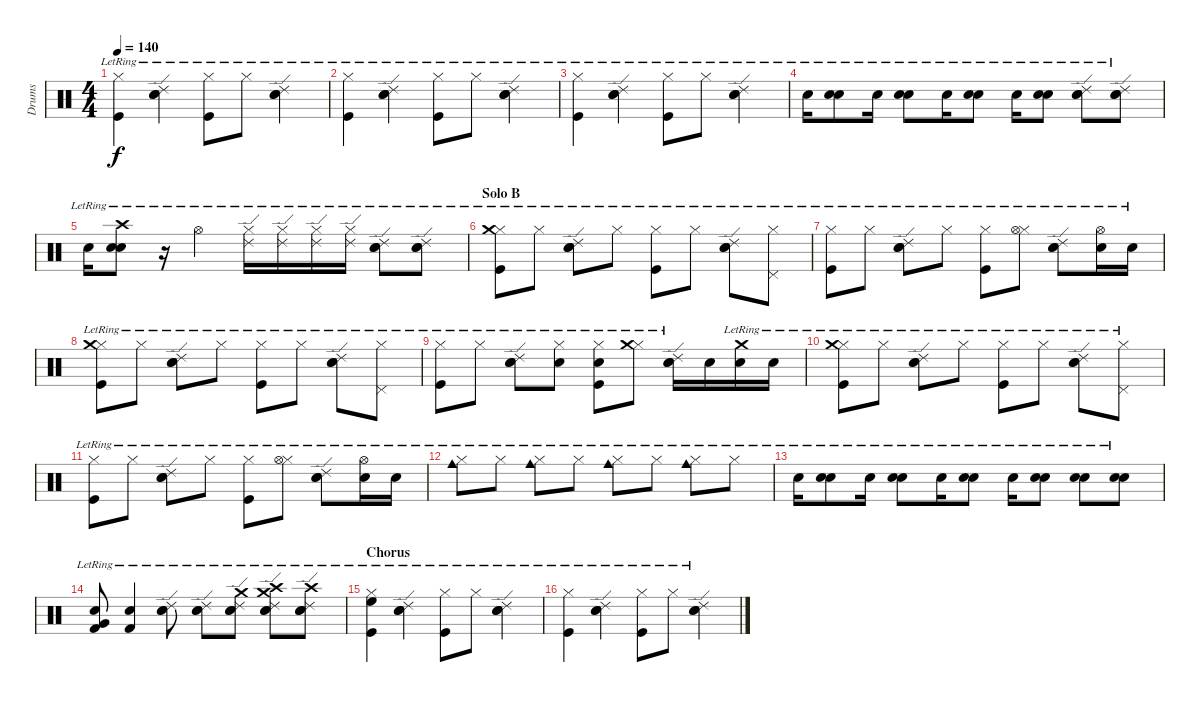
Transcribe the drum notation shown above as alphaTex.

\track ("Drums" "Drums") {instrument percussion}
\staff {score}
\articulation defaults
\ts (4 4)
\tempo 140
\clef neutral
\ks c
("Hi-Hat (closed)"{lr} "Kick (hit)"{lr}).4{dy f} ("Electric Snare (hit)"{lr} "Ride (edge) 2"{lr} "Snare (hit) 2"{lr}).4 ("Hi-Hat (closed)"{lr} "Kick (hit)"{lr}).8 "Hi-Hat (closed)"{lr}.8 ("Electric Snare (hit)"{lr} "Ride (edge) 2"{lr} "Snare (hit) 2"{lr}).4 |
("Hi-Hat (closed)"{lr} "Kick (hit)"{lr}).4 ("Electric Snare (hit)"{lr} "Ride (edge) 2"{lr} "Snare (hit) 2"{lr}).4 ("Hi-Hat (closed)"{lr} "Kick (hit)"{lr}).8 "Hi-Hat (closed)"{lr}.8 ("Electric Snare (hit)"{lr} "Ride (edge) 2"{lr} "Snare (hit) 2"{lr}).4 |
("Hi-Hat (closed)"{lr} "Kick (hit)"{lr}).4 ("Electric Snare (hit)"{lr} "Ride (edge) 2"{lr} "Snare (hit) 2"{lr}).4 ("Hi-Hat (closed)"{lr} "Kick (hit)"{lr}).8 "Hi-Hat (closed)"{lr}.8 ("Electric Snare (hit)"{lr} "Ride (edge) 2"{lr} "Snare (hit) 2"{lr}).4 |
"Snare (hit) 2"{lr}.16 ("Snare (hit) 2"{lr} "Electric Snare (hit)"{lr}).8 "Snare (hit) 2"{lr}.16 ("Snare (hit) 2"{lr} "Electric Snare (hit)"{lr}).8 "Snare (hit) 2"{lr}.16 ("Snare (hit) 2"{lr} "Electric Snare (hit)"{lr}).8 "Snare (hit) 2"{lr}.16 ("Snare (hit) 2"{lr} "Electric Snare (hit)"{lr}).8 ("Snare (hit) 2"{lr} "Electric Snare (hit)"{lr} "Ride (edge) 2"{lr}).8 ("Snare (hit) 2"{lr} "Electric Snare (hit)"{lr} "Ride (edge) 2"{lr}).8 |
"Snare (hit) 2"{lr}.16 ("Crash high (hit)"{lr} "Snare (hit) 2"{lr} "Electric Snare (hit)"{lr}).8 r.16 "Hi-Hat (open)"{lr}.4 ("Hi-Hat (closed)"{lr} "Ride (edge) 2"{lr}).16 ("Hi-Hat (closed)"{lr} "Ride (edge) 2"{lr}).16 ("Hi-Hat (closed)"{lr} "Ride (edge) 2"{lr}).16 ("Hi-Hat (closed)"{lr} "Ride (edge) 2"{lr}).16 ("Snare (hit) 2"{lr} "Electric Snare (hit)"{lr} "Ride (edge) 2"{lr}).8 ("Snare (hit) 2"{lr} "Electric Snare (hit)"{lr} "Ride (edge) 2"{lr}).8 |
\section ("" "Solo B")
("Hi-Hat (closed)"{lr} "Crash medium (hit)"{lr} "Kick (hit)"{lr}).8 "Hi-Hat (closed)"{lr}.8 ("Electric Snare (hit)"{lr} "Ride (edge) 2"{lr} "Snare (hit) 2"{lr}).8 "Hi-Hat (closed)"{lr}.8 ("Hi-Hat (closed)"{lr} "Kick (hit)"{lr}).8 "Hi-Hat (closed)"{lr}.8 ("Electric Snare (hit)"{lr} "Ride (edge) 2"{lr} "Snare (hit) 2"{lr}).8 ("Hi-Hat (closed)"{lr} "Pedal Hi-Hat (hit)"{lr}).8 |
("Hi-Hat (closed)"{lr} "Kick (hit)"{lr}).8 "Hi-Hat (closed)"{lr}.8 ("Electric Snare (hit)"{lr} "Ride (edge) 2"{lr} "Snare (hit) 2"{lr}).8 "Hi-Hat (closed)"{lr}.8 ("Hi-Hat (closed)"{lr} "Kick (hit)"{lr}).8 ("Hi-Hat (closed)"{lr} "Hi-Hat (open)"{lr}).8 ("Electric Snare (hit)"{lr} "Ride (edge) 2"{lr} "Snare (hit) 2"{lr}).8 ("Hi-Hat (open)"{lr} "Snare (hit) 2"{lr}).16 "Snare (hit) 2"{lr}.16 |
("Hi-Hat (closed)"{lr} "Crash medium (hit)"{lr} "Kick (hit)"{lr}).8 "Hi-Hat (closed)"{lr}.8 ("Electric Snare (hit)"{lr} "Ride (edge) 2"{lr} "Snare (hit) 2"{lr}).8 "Hi-Hat (closed)"{lr}.8 ("Hi-Hat (closed)"{lr} "Kick (hit)"{lr}).8 "Hi-Hat (closed)"{lr}.8 ("Electric Snare (hit)"{lr} "Ride (edge) 2"{lr} "Snare (hit) 2"{lr}).8 ("Hi-Hat (closed)"{lr} "Pedal Hi-Hat (hit)"{lr}).8 |
("Hi-Hat (closed)"{lr} "Kick (hit)"{lr}).8 "Hi-Hat (closed)"{lr}.8 ("Electric Snare (hit)" "Ride (edge) 2"{lr} "Snare (hit) 2").8 ("Hi-Hat (closed)"{lr} "Snare (hit) 2").8 ("Hi-Hat (closed)"{lr} "Electric Snare (hit)" "Kick (hit)"{lr}).8 ("Hi-Hat (closed)"{lr} "Crash medium (hit)"{lr}).8 ("Electric Snare (hit)"{lr} "Ride (edge) 2"{lr} "Snare (hit) 2"{lr}).16 "Snare (hit) 2".16 ("Crash medium (hit)"{lr} "Snare (hit) 2"{lr}).16 "Snare (hit) 2"{lr}.16 |
("Hi-Hat (closed)"{lr} "Crash medium (hit)"{lr} "Kick (hit)"{lr}).8 "Hi-Hat (closed)"{lr}.8 ("Electric Snare (hit)"{lr} "Ride (edge) 2"{lr} "Snare (hit) 2"{lr}).8 "Hi-Hat (closed)"{lr}.8 ("Hi-Hat (closed)"{lr} "Kick (hit)"{lr}).8 "Hi-Hat (closed)"{lr}.8 ("Electric Snare (hit)"{lr} "Ride (edge) 2"{lr} "Snare (hit) 2"{lr}).8 ("Hi-Hat (closed)"{lr} "Pedal Hi-Hat (hit)"{lr}).8 |
("Hi-Hat (closed)"{lr} "Kick (hit)"{lr}).8 "Hi-Hat (closed)"{lr}.8 ("Electric Snare (hit)"{lr} "Ride (edge) 2"{lr} "Snare (hit) 2"{lr}).8 "Hi-Hat (closed)"{lr}.8 ("Hi-Hat (closed)"{lr} "Kick (hit)"{lr}).8 ("Hi-Hat (closed)"{lr} "Hi-Hat (open)"{lr}).8 ("Electric Snare (hit)"{lr} "Ride (edge) 2"{lr} "Snare (hit) 2"{lr}).8 ("Hi-Hat (open)"{lr} "Snare (hit) 2"{lr}).16 "Snare (hit) 2"{lr}.16 |
("Hi-Hat (closed)"{lr} "Cowbell medium (hit)"{lr}).8 "Hi-Hat (closed)"{lr}.8 ("Hi-Hat (closed)"{lr} "Cowbell medium (hit)"{lr}).8 "Hi-Hat (closed)"{lr}.8 ("Hi-Hat (closed)"{lr} "Cowbell medium (hit)"{lr}).8 "Hi-Hat (closed)"{lr}.8 ("Hi-Hat (closed)"{lr} "Cowbell medium (hit)"{lr}).8 "Hi-Hat (closed)"{lr}.8 |
"Snare (hit) 2"{lr}.16 ("Snare (hit) 2"{lr} "Electric Snare (hit)"{lr}).8 "Snare (hit) 2"{lr}.16 ("Snare (hit) 2"{lr} "Electric Snare (hit)"{lr}).8 "Snare (hit) 2"{lr}.16 ("Snare (hit) 2"{lr} "Electric Snare (hit)"{lr}).8 "Snare (hit) 2"{lr}.16 ("Snare (hit) 2"{lr} "Electric Snare (hit)"{lr}).8 ("Snare (hit) 2"{lr} "Electric Snare (hit)"{lr}).8 ("Snare (hit) 2"{lr} "Electric Snare (hit)"{lr}).8 |
("Kick (hit) 2"{lr} "Very Low Tom (hit)" "Electric Snare (hit)"{lr}).8 ("Kick (hit) 2"{lr} "Electric Snare (hit)"{lr}).4 ("Snare (hit) 2"{lr} "Electric Snare (hit)"{lr} "Ride (edge) 2"{lr}).8 ("Snare (hit) 2"{lr} "Electric Snare (hit)"{lr} "Ride (edge) 2"{lr}).8 ("Snare (hit) 2"{lr} "Electric Snare (hit)"{lr} "Ride (edge) 2"{lr} "Crash medium (hit)").8 ("Snare (hit) 2"{lr} "Electric Snare (hit)"{lr} "Ride (edge) 2"{lr} "Crash high (hit)"{lr} "Crash medium (hit)").8 ("Snare (hit) 2"{lr} "Electric Snare (hit)"{lr} "Ride (edge) 2"{lr} "Crash high (hit)"{lr}).8 |
\section ("" "Chorus")
("Hi-Hat (closed)"{lr} "Kick (hit)"{lr} "High Floor Tom (hit)"{lr}).4 ("Electric Snare (hit)"{lr} "Ride (edge) 2"{lr} "Snare (hit) 2"{lr}).4 ("Hi-Hat (closed)"{lr} "Kick (hit)"{lr}).8 "Hi-Hat (closed)"{lr}.8 ("Electric Snare (hit)"{lr} "Ride (edge) 2"{lr} "Snare (hit) 2"{lr}).4 |
("Hi-Hat (closed)"{lr} "Kick (hit)"{lr}).4 ("Electric Snare (hit)"{lr} "Ride (edge) 2"{lr} "Snare (hit) 2"{lr}).4 ("Hi-Hat (closed)"{lr} "Kick (hit)"{lr}).8 "Hi-Hat (closed)"{lr}.8 ("Electric Snare (hit)"{lr} "Ride (edge) 2"{lr} "Snare (hit) 2"{lr}).4
